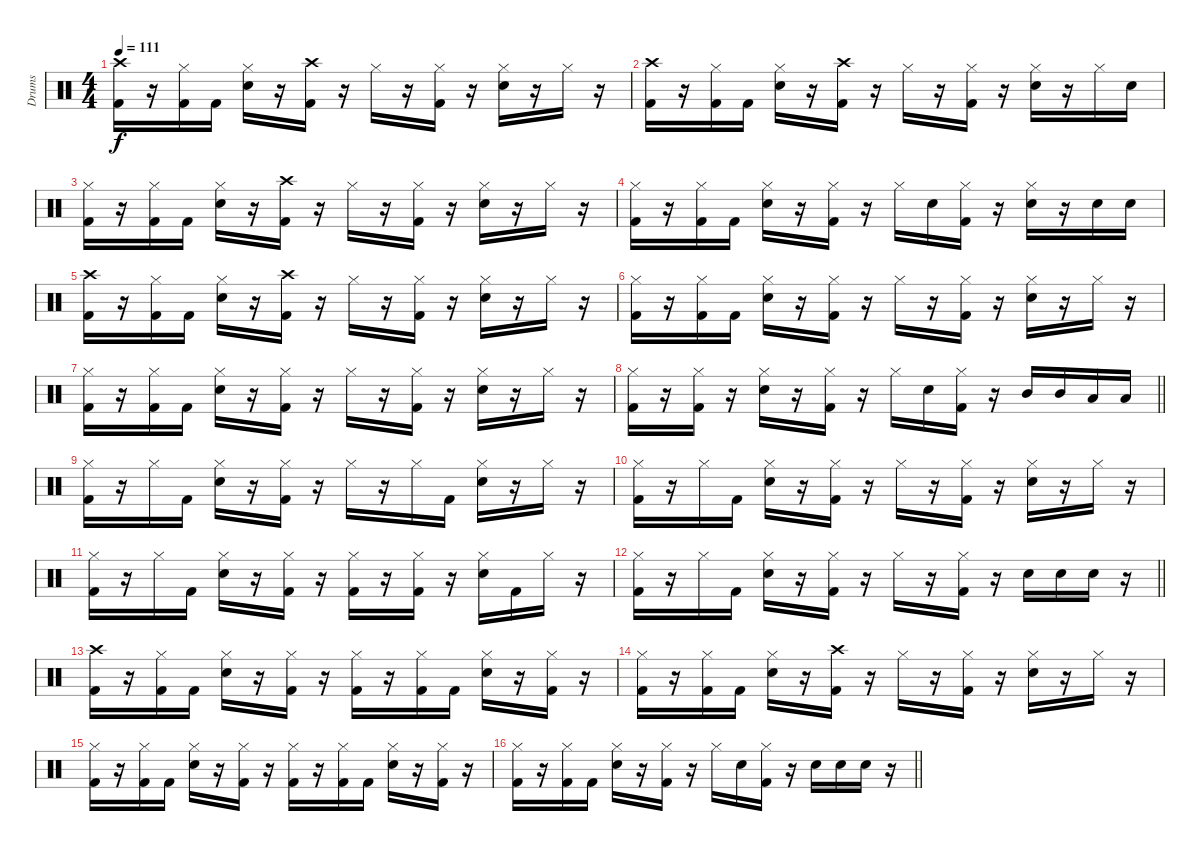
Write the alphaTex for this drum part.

\track ("Drums" "Drums") {instrument percussion}
\staff {score}
\articulation defaults
\ts (4 4)
\tempo 111
\clef neutral
\ks c
("Crash high (hit)" "Kick (hit) 2").16{dy f} r.16 ("Hi-Hat (closed)" "Kick (hit) 2").16 "Kick (hit) 2".16 ("Hi-Hat (closed)" "Snare (hit) 2").16 r.16 ("Crash high (hit)" "Kick (hit) 2").16 r.16 "Hi-Hat (closed)".16 r.16 ("Hi-Hat (closed)" "Kick (hit) 2").16 r.16 ("Hi-Hat (closed)" "Snare (hit) 2").16 r.16 "Hi-Hat (closed)".16 r.16 |
("Crash high (hit)" "Kick (hit) 2").16 r.16 ("Hi-Hat (closed)" "Kick (hit) 2").16 "Kick (hit) 2".16 ("Hi-Hat (closed)" "Snare (hit) 2").16 r.16 ("Crash high (hit)" "Kick (hit) 2").16 r.16 "Hi-Hat (closed)".16 r.16 ("Hi-Hat (closed)" "Kick (hit) 2").16 r.16 ("Hi-Hat (closed)" "Snare (hit) 2").16 r.16 "Hi-Hat (closed)".16 "Snare (hit) 2".16 |
("Hi-Hat (closed)" "Kick (hit) 2").16 r.16 ("Hi-Hat (closed)" "Kick (hit) 2").16 "Kick (hit) 2".16 ("Hi-Hat (closed)" "Snare (hit) 2").16 r.16 ("Crash high (hit)" "Kick (hit) 2").16 r.16 "Hi-Hat (closed)".16 r.16 ("Hi-Hat (closed)" "Kick (hit) 2").16 r.16 ("Hi-Hat (closed)" "Snare (hit) 2").16 r.16 "Hi-Hat (closed)".16 r.16 |
("Hi-Hat (closed)" "Kick (hit) 2").16 r.16 ("Hi-Hat (closed)" "Kick (hit) 2").16 "Kick (hit) 2".16 ("Hi-Hat (closed)" "Snare (hit) 2").16 r.16 ("Hi-Hat (closed)" "Kick (hit) 2").16 r.16 "Hi-Hat (closed)".16 "Snare (hit) 2".16 ("Hi-Hat (closed)" "Kick (hit) 2").16 r.16 ("Hi-Hat (closed)" "Snare (hit) 2").16 r.16 "Snare (hit) 2".16 "Snare (hit) 2".16 |
("Crash high (hit)" "Kick (hit) 2").16 r.16 ("Hi-Hat (closed)" "Kick (hit) 2").16 "Kick (hit) 2".16 ("Hi-Hat (closed)" "Snare (hit) 2").16 r.16 ("Crash high (hit)" "Kick (hit) 2").16 r.16 "Hi-Hat (closed)".16 r.16 ("Hi-Hat (closed)" "Kick (hit) 2").16 r.16 ("Hi-Hat (closed)" "Snare (hit) 2").16 r.16 "Hi-Hat (closed)".16 r.16 |
("Hi-Hat (closed)" "Kick (hit) 2").16 r.16 ("Hi-Hat (closed)" "Kick (hit) 2").16 "Kick (hit) 2".16 ("Hi-Hat (closed)" "Snare (hit) 2").16 r.16 ("Hi-Hat (closed)" "Kick (hit) 2").16 r.16 "Hi-Hat (closed)".16 r.16 ("Hi-Hat (closed)" "Kick (hit) 2").16 r.16 ("Hi-Hat (closed)" "Snare (hit) 2").16 r.16 "Hi-Hat (closed)".16 r.16 |
("Hi-Hat (closed)" "Kick (hit) 2").16 r.16 ("Hi-Hat (closed)" "Kick (hit) 2").16 "Kick (hit) 2".16 ("Hi-Hat (closed)" "Snare (hit) 2").16 r.16 ("Hi-Hat (closed)" "Kick (hit) 2").16 r.16 "Hi-Hat (closed)".16 r.16 ("Hi-Hat (closed)" "Kick (hit) 2").16 r.16 ("Hi-Hat (closed)" "Snare (hit) 2").16 r.16 "Hi-Hat (closed)".16 r.16 |
\barLineRight lightlight
("Hi-Hat (closed)" "Kick (hit) 2").16 r.16 ("Hi-Hat (closed)" "Kick (hit) 2").16 r.16 ("Hi-Hat (closed)" "Snare (hit) 2").16 r.16 ("Hi-Hat (closed)" "Kick (hit) 2").16 r.16 "Hi-Hat (closed)".16 "Snare (hit) 2".16 ("Hi-Hat (closed)" "Kick (hit) 2").16 r.16 "Mid Tom (hit)".16 "Mid Tom (hit)".16 "Low Tom (hit)".16 "Low Tom (hit)".16 |
("Hi-Hat (closed)" "Kick (hit) 2").16 r.16 "Hi-Hat (closed)".16 "Kick (hit) 2".16 ("Hi-Hat (closed)" "Snare (hit) 2").16 r.16 ("Hi-Hat (closed)" "Kick (hit) 2").16 r.16 "Hi-Hat (closed)".16 r.16 "Hi-Hat (closed)".16 "Kick (hit) 2".16 ("Hi-Hat (closed)" "Snare (hit) 2").16 r.16 "Hi-Hat (closed)".16 r.16 |
("Hi-Hat (closed)" "Kick (hit) 2").16 r.16 "Hi-Hat (closed)".16 "Kick (hit) 2".16 ("Hi-Hat (closed)" "Snare (hit) 2").16 r.16 ("Hi-Hat (closed)" "Kick (hit) 2").16 r.16 "Hi-Hat (closed)".16 r.16 ("Hi-Hat (closed)" "Kick (hit) 2").16 r.16 ("Hi-Hat (closed)" "Snare (hit) 2").16 r.16 "Hi-Hat (closed)".16 r.16 |
("Hi-Hat (closed)" "Kick (hit) 2").16 r.16 "Hi-Hat (closed)".16 "Kick (hit) 2".16 ("Hi-Hat (closed)" "Snare (hit) 2").16 r.16 ("Hi-Hat (closed)" "Kick (hit) 2").16 r.16 ("Hi-Hat (closed)" "Kick (hit) 2").16 r.16 ("Hi-Hat (closed)" "Kick (hit) 2").16 r.16 ("Hi-Hat (closed)" "Snare (hit) 2").16 "Kick (hit) 2".16 "Hi-Hat (closed)".16 r.16 |
\barLineRight lightlight
("Hi-Hat (closed)" "Kick (hit) 2").16 r.16 "Hi-Hat (closed)".16 "Kick (hit) 2".16 ("Hi-Hat (closed)" "Snare (hit) 2").16 r.16 ("Hi-Hat (closed)" "Kick (hit) 2").16 r.16 "Hi-Hat (closed)".16 r.16 ("Hi-Hat (closed)" "Kick (hit) 2").16 r.16 "Snare (hit) 2".16 "Snare (hit) 2".16 "Snare (hit) 2".16 r.16 |
("Crash high (hit)" "Kick (hit) 2").16 r.16 ("Hi-Hat (closed)" "Kick (hit) 2").16 "Kick (hit) 2".16 ("Hi-Hat (closed)" "Snare (hit) 2").16 r.16 ("Hi-Hat (closed)" "Kick (hit) 2").16 r.16 ("Hi-Hat (closed)" "Kick (hit) 2").16 r.16 ("Hi-Hat (closed)" "Kick (hit) 2").16 "Kick (hit) 2".16 ("Hi-Hat (closed)" "Snare (hit) 2").16 r.16 ("Hi-Hat (closed)" "Kick (hit) 2").16 r.16 |
("Hi-Hat (closed)" "Kick (hit) 2").16 r.16 ("Hi-Hat (closed)" "Kick (hit) 2").16 "Kick (hit) 2".16 ("Hi-Hat (closed)" "Snare (hit) 2").16 r.16 ("Crash high (hit)" "Kick (hit) 2").16 r.16 "Hi-Hat (closed)".16 r.16 ("Hi-Hat (closed)" "Kick (hit) 2").16 r.16 ("Hi-Hat (closed)" "Snare (hit) 2").16 r.16 "Hi-Hat (closed)".16 r.16 |
("Hi-Hat (closed)" "Kick (hit) 2").16 r.16 ("Hi-Hat (closed)" "Kick (hit) 2").16 "Kick (hit) 2".16 ("Hi-Hat (closed)" "Snare (hit) 2").16 r.16 ("Hi-Hat (closed)" "Kick (hit) 2").16 r.16 ("Hi-Hat (closed)" "Kick (hit) 2").16 r.16 ("Hi-Hat (closed)" "Kick (hit) 2").16 "Kick (hit) 2".16 ("Hi-Hat (closed)" "Snare (hit) 2").16 r.16 ("Hi-Hat (closed)" "Kick (hit) 2").16 r.16 |
\barLineRight lightlight
("Hi-Hat (closed)" "Kick (hit) 2").16 r.16 ("Hi-Hat (closed)" "Kick (hit) 2").16 "Kick (hit) 2".16 ("Hi-Hat (closed)" "Snare (hit) 2").16 r.16 ("Hi-Hat (closed)" "Kick (hit) 2").16 r.16 "Hi-Hat (closed)".16 "Snare (hit) 2".16 ("Hi-Hat (closed)" "Kick (hit) 2").16 r.16 "Snare (hit) 2".16 "Snare (hit) 2".16 "Snare (hit) 2".16 r.16
